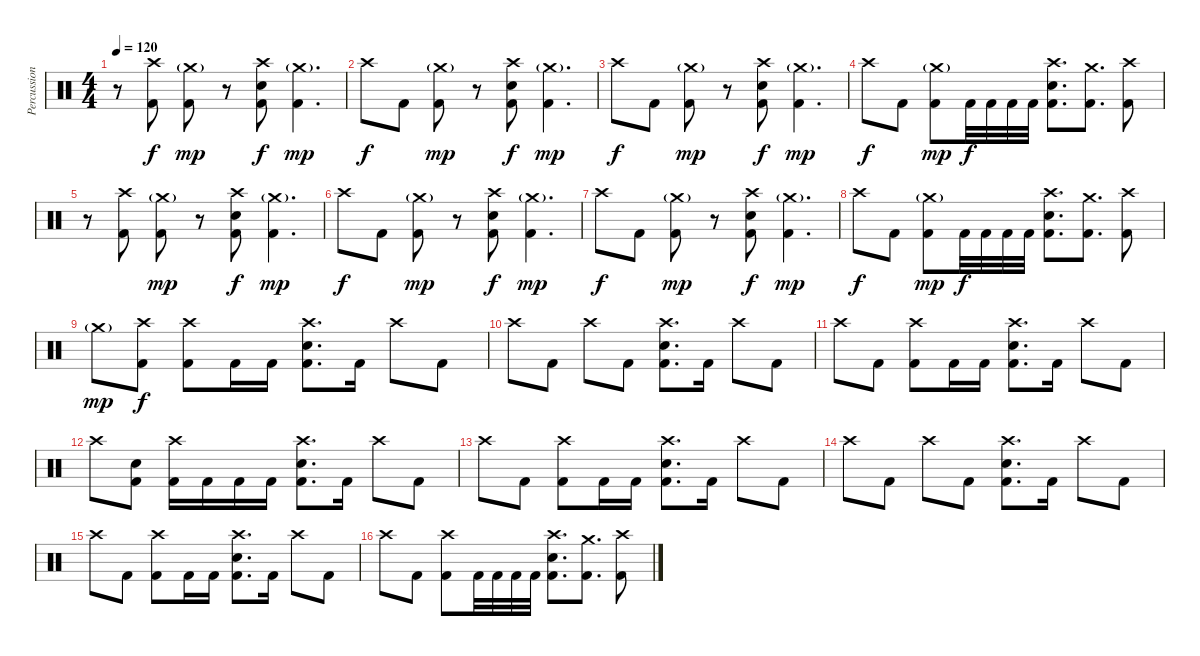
\track ("Percussion" "Percussion") {instrument percussion}
\staff {score}
\articulation defaults
\ts (4 4)
\tempo 120
\clef neutral
\ks c
r.8{dy f} ("Crash high (hit)" "Kick (hit) 2").8 ("Crash medium (hit)"{g} "Kick (hit) 2").8{dy mp} r.8 ("Crash high (hit)" "Electric Snare (hit)" "Kick (hit) 2").8{dy f} ("Crash medium (hit)"{g} "Kick (hit) 2").4{d dy mp} |
"Crash high (hit)".8{dy f} "Kick (hit) 2".8 ("Crash medium (hit)"{g} "Kick (hit) 2").8{dy mp} r.8 ("Crash high (hit)" "Electric Snare (hit)" "Kick (hit) 2").8{dy f} ("Crash medium (hit)"{g} "Kick (hit) 2").4{d dy mp} |
"Crash high (hit)".8{dy f} "Kick (hit) 2".8 ("Crash medium (hit)"{g} "Kick (hit) 2").8{dy mp} r.8 ("Crash high (hit)" "Electric Snare (hit)" "Kick (hit) 2").8{dy f} ("Crash medium (hit)"{g} "Kick (hit) 2").4{d dy mp} |
"Crash high (hit)".8{dy f} "Kick (hit) 2".8 ("Crash medium (hit)"{g} "Kick (hit) 2").8{dy mp} "Kick (hit) 2".32{dy f} "Kick (hit) 2".32 "Kick (hit) 2".32 "Kick (hit) 2".32 ("Crash high (hit)" "Electric Snare (hit)" "Kick (hit) 2").8{d} ("Crash medium (hit)" "Kick (hit) 2").8{d} ("Crash high (hit)" "Kick (hit) 2").8 |
r.8 ("Crash high (hit)" "Kick (hit) 2").8 ("Crash medium (hit)"{g} "Kick (hit) 2").8{dy mp} r.8 ("Crash high (hit)" "Electric Snare (hit)" "Kick (hit) 2").8{dy f} ("Crash medium (hit)"{g} "Kick (hit) 2").4{d dy mp} |
"Crash high (hit)".8{dy f} "Kick (hit) 2".8 ("Crash medium (hit)"{g} "Kick (hit) 2").8{dy mp} r.8 ("Crash high (hit)" "Electric Snare (hit)" "Kick (hit) 2").8{dy f} ("Crash medium (hit)"{g} "Kick (hit) 2").4{d dy mp} |
"Crash high (hit)".8{dy f} "Kick (hit) 2".8 ("Crash medium (hit)"{g} "Kick (hit) 2").8{dy mp} r.8 ("Crash high (hit)" "Electric Snare (hit)" "Kick (hit) 2").8{dy f} ("Crash medium (hit)"{g} "Kick (hit) 2").4{d dy mp} |
"Crash high (hit)".8{dy f} "Kick (hit) 2".8 ("Crash medium (hit)"{g} "Kick (hit) 2").8{dy mp} "Kick (hit) 2".32{dy f} "Kick (hit) 2".32 "Kick (hit) 2".32 "Kick (hit) 2".32 ("Crash high (hit)" "Electric Snare (hit)" "Kick (hit) 2").8{d} ("Crash medium (hit)" "Kick (hit) 2").8{d} ("Crash high (hit)" "Kick (hit) 2").8 |
"Crash medium (hit)"{g}.8{dy mp} ("Crash high (hit)" "Kick (hit) 2").8{dy f} ("Crash high (hit)" "Kick (hit) 2").8 "Kick (hit) 2".16 "Kick (hit) 2".16 ("Crash high (hit)" "Electric Snare (hit)" "Kick (hit) 2").8{d} "Kick (hit) 2".16 "Crash high (hit)".8 "Kick (hit) 2".8 |
"Crash high (hit)".8 "Kick (hit) 2".8 "Crash high (hit)".8 "Kick (hit) 2".8 ("Crash high (hit)" "Electric Snare (hit)" "Kick (hit) 2").8{d} "Kick (hit) 2".16 "Crash high (hit)".8 "Kick (hit) 2".8 |
"Crash high (hit)".8 "Kick (hit) 2".8 ("Crash high (hit)" "Kick (hit) 2").8 "Kick (hit) 2".16 "Kick (hit) 2".16 ("Crash high (hit)" "Electric Snare (hit)" "Kick (hit) 2").8{d} "Kick (hit) 2".16 "Crash high (hit)".8 "Kick (hit) 2".8 |
"Crash high (hit)".8 ("Electric Snare (hit)" "Kick (hit) 2").8 ("Crash high (hit)" "Kick (hit) 2").16 "Kick (hit) 2".16 "Kick (hit) 2".16 "Kick (hit) 2".16 ("Crash high (hit)" "Electric Snare (hit)" "Kick (hit) 2").8{d} "Kick (hit) 2".16 "Crash high (hit)".8 "Kick (hit) 2".8 |
"Crash high (hit)".8 "Kick (hit) 2".8 ("Crash high (hit)" "Kick (hit) 2").8 "Kick (hit) 2".16 "Kick (hit) 2".16 ("Crash high (hit)" "Electric Snare (hit)" "Kick (hit) 2").8{d} "Kick (hit) 2".16 "Crash high (hit)".8 "Kick (hit) 2".8 |
"Crash high (hit)".8 "Kick (hit) 2".8 "Crash high (hit)".8 "Kick (hit) 2".8 ("Crash high (hit)" "Electric Snare (hit)" "Kick (hit) 2").8{d} "Kick (hit) 2".16 "Crash high (hit)".8 "Kick (hit) 2".8 |
"Crash high (hit)".8 "Kick (hit) 2".8 ("Crash high (hit)" "Kick (hit) 2").8 "Kick (hit) 2".16 "Kick (hit) 2".16 ("Crash high (hit)" "Electric Snare (hit)" "Kick (hit) 2").8{d} "Kick (hit) 2".16 "Crash high (hit)".8 "Kick (hit) 2".8 |
"Crash high (hit)".8 "Kick (hit) 2".8 ("Crash high (hit)" "Kick (hit) 2").8 "Kick (hit) 2".32 "Kick (hit) 2".32 "Kick (hit) 2".32 "Kick (hit) 2".32 ("Crash high (hit)" "Electric Snare (hit)" "Kick (hit) 2").8{d} ("Crash medium (hit)" "Kick (hit) 2").8{d} ("Crash high (hit)" "Kick (hit) 2").8
